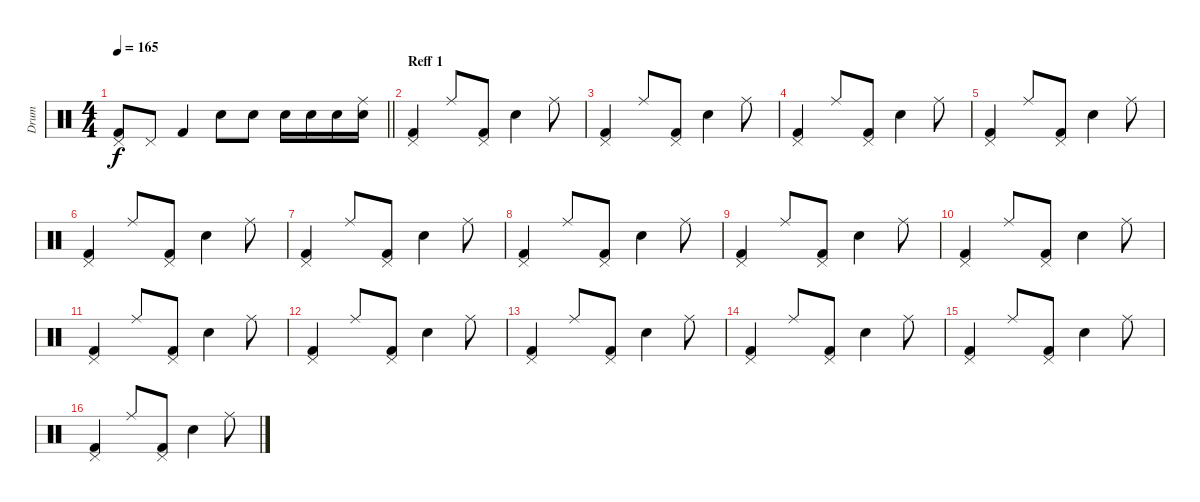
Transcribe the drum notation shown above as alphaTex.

\track ("Drum" "Drum") {instrument percussion}
\staff {score}
\articulation defaults
\ts (4 4)
\tempo 165
\clef neutral
\barLineRight lightlight
\ks c
("Kick (hit) 2" "Pedal Hi-Hat (hit)").8{dy f} "Pedal Hi-Hat (hit)".8 "Kick (hit) 2".4 "Electric Snare (hit)".8 "Electric Snare (hit)".8 "Electric Snare (hit)".16 "Electric Snare (hit)".16 "Electric Snare (hit)".16 ("Electric Snare (hit)" "Ride (middle)").16 |
\section ("" "Reff 1")
("Kick (hit) 2" "Pedal Hi-Hat (hit)").4 "Ride (middle)".8 ("Kick (hit) 2" "Pedal Hi-Hat (hit)").8 "Electric Snare (hit)".4 "Ride (middle)".8 |
("Kick (hit) 2" "Pedal Hi-Hat (hit)").4 "Ride (middle)".8 ("Kick (hit) 2" "Pedal Hi-Hat (hit)").8 "Electric Snare (hit)".4 "Ride (middle)".8 |
("Kick (hit) 2" "Pedal Hi-Hat (hit)").4 "Ride (middle)".8 ("Kick (hit) 2" "Pedal Hi-Hat (hit)").8 "Electric Snare (hit)".4 "Ride (middle)".8 |
("Kick (hit) 2" "Pedal Hi-Hat (hit)").4 "Ride (middle)".8 ("Kick (hit) 2" "Pedal Hi-Hat (hit)").8 "Electric Snare (hit)".4 "Ride (middle)".8 |
("Kick (hit) 2" "Pedal Hi-Hat (hit)").4 "Ride (middle)".8 ("Kick (hit) 2" "Pedal Hi-Hat (hit)").8 "Electric Snare (hit)".4 "Ride (middle)".8 |
("Kick (hit) 2" "Pedal Hi-Hat (hit)").4 "Ride (middle)".8 ("Kick (hit) 2" "Pedal Hi-Hat (hit)").8 "Electric Snare (hit)".4 "Ride (middle)".8 |
("Kick (hit) 2" "Pedal Hi-Hat (hit)").4 "Ride (middle)".8 ("Kick (hit) 2" "Pedal Hi-Hat (hit)").8 "Electric Snare (hit)".4 "Ride (middle)".8 |
("Kick (hit) 2" "Pedal Hi-Hat (hit)").4 "Ride (middle)".8 ("Kick (hit) 2" "Pedal Hi-Hat (hit)").8 "Electric Snare (hit)".4 "Ride (middle)".8 |
("Kick (hit) 2" "Pedal Hi-Hat (hit)").4 "Ride (middle)".8 ("Kick (hit) 2" "Pedal Hi-Hat (hit)").8 "Electric Snare (hit)".4 "Ride (middle)".8 |
("Kick (hit) 2" "Pedal Hi-Hat (hit)").4 "Ride (middle)".8 ("Kick (hit) 2" "Pedal Hi-Hat (hit)").8 "Electric Snare (hit)".4 "Ride (middle)".8 |
("Kick (hit) 2" "Pedal Hi-Hat (hit)").4 "Ride (middle)".8 ("Kick (hit) 2" "Pedal Hi-Hat (hit)").8 "Electric Snare (hit)".4 "Ride (middle)".8 |
("Kick (hit) 2" "Pedal Hi-Hat (hit)").4 "Ride (middle)".8 ("Kick (hit) 2" "Pedal Hi-Hat (hit)").8 "Electric Snare (hit)".4 "Ride (middle)".8 |
("Kick (hit) 2" "Pedal Hi-Hat (hit)").4 "Ride (middle)".8 ("Kick (hit) 2" "Pedal Hi-Hat (hit)").8 "Electric Snare (hit)".4 "Ride (middle)".8 |
("Kick (hit) 2" "Pedal Hi-Hat (hit)").4 "Ride (middle)".8 ("Kick (hit) 2" "Pedal Hi-Hat (hit)").8 "Electric Snare (hit)".4 "Ride (middle)".8 |
("Kick (hit) 2" "Pedal Hi-Hat (hit)").4 "Ride (middle)".8 ("Kick (hit) 2" "Pedal Hi-Hat (hit)").8 "Electric Snare (hit)".4 "Ride (middle)".8
